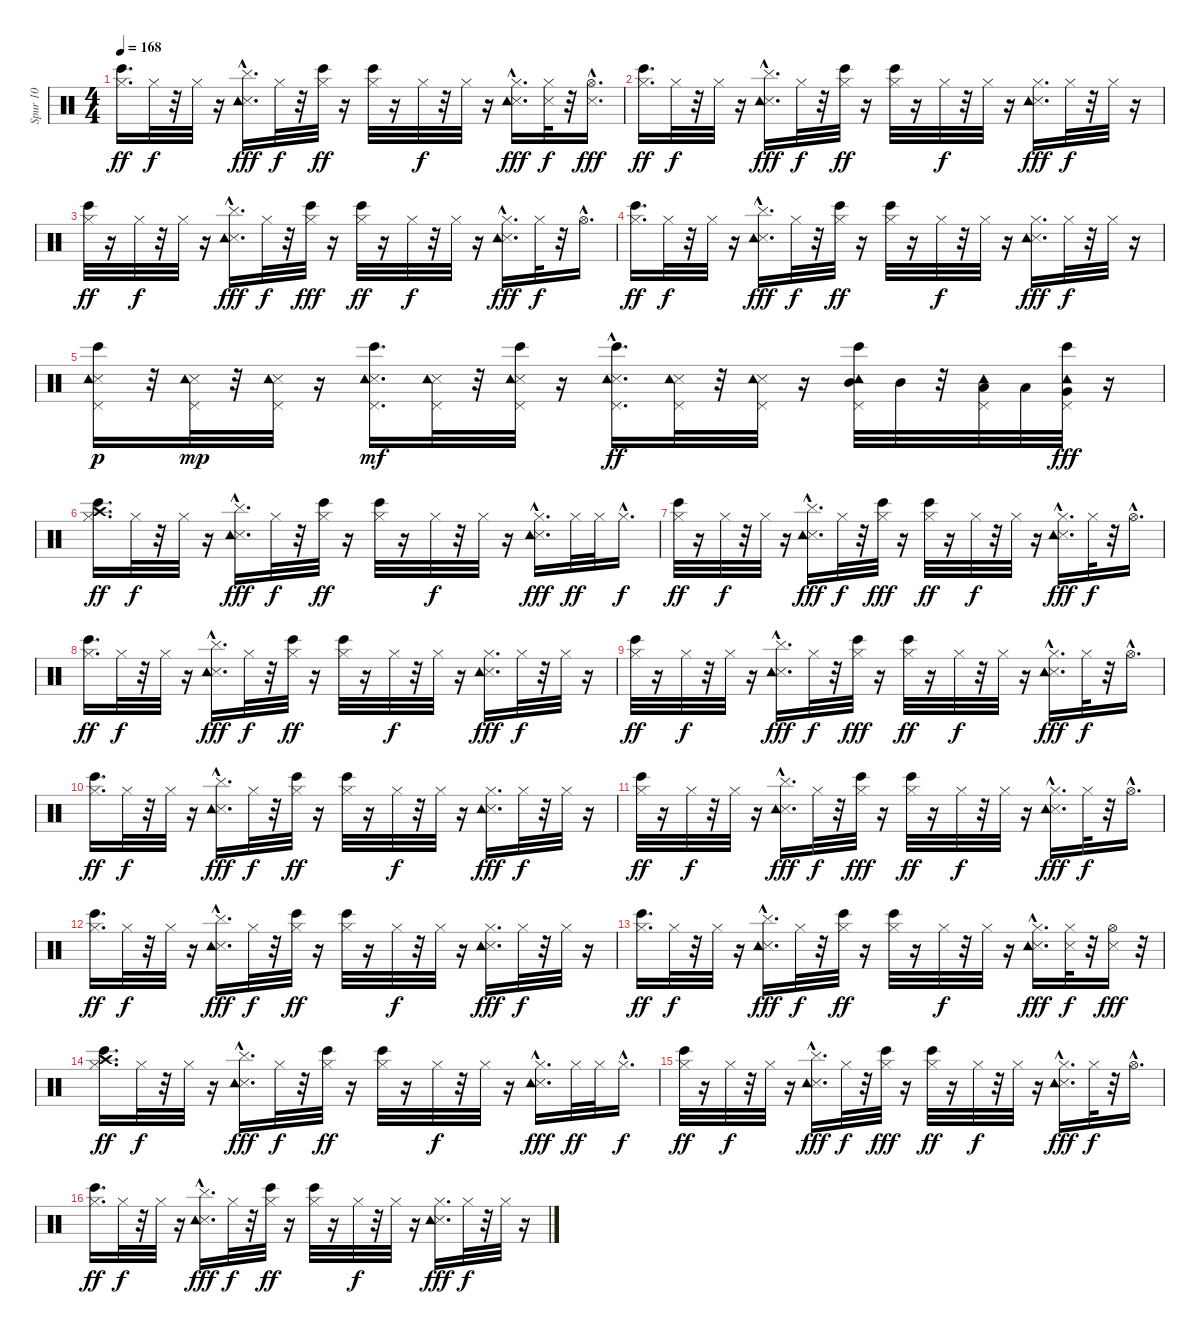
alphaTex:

\track ("Spur 10" "Spur 10") {instrument percussion}
\staff {score}
\articulation defaults
\ts (4 4)
\tempo 168
\clef neutral
\ks c
("Hi-Hat (closed)" "Bongo High (hit)").16{d dy ff} "Hi-Hat (closed)".32{dy f} r.32 "Hi-Hat (closed)".32 r.16 ("Cymbal (hit)"{hac} "Metronome (hit)" "Tambourine (hit)").16{d dy fff} "Hi-Hat (closed)".32{dy f} r.32 ("Hi-Hat (closed)" "Bongo High (hit)").32{dy ff} r.16 ("Hi-Hat (closed)" "Bongo High (hit)").32 r.16 "Hi-Hat (closed)".32{dy f} r.32 "Hi-Hat (closed)".32 r.16 ("Hi-Hat (closed)" "Metronome (hit)"{hac} "Tambourine (hit)").16{d dy fff} ("Metronome (hit)" "Hi-Hat (closed)").32{dy f} r.32 ("Metronome (hit)"{hac} "Hi-Hat (open)"{hac}).16{d dy fff} |
("Hi-Hat (closed)" "Bongo High (hit)").16{d dy ff} "Hi-Hat (closed)".32{dy f} r.32 "Hi-Hat (closed)".32 r.16 ("Cymbal (hit)"{hac} "Metronome (hit)" "Tambourine (hit)").16{d dy fff} "Hi-Hat (closed)".32{dy f} r.32 ("Hi-Hat (closed)" "Bongo High (hit)").32{dy ff} r.16 ("Hi-Hat (closed)" "Bongo High (hit)").32 r.16 "Hi-Hat (closed)".32{dy f} r.32 "Hi-Hat (closed)".32 r.16 ("Hi-Hat (closed)" "Metronome (hit)" "Tambourine (hit)").16{d dy fff} "Hi-Hat (closed)".32{dy f} r.32 "Hi-Hat (closed)".32 r.16 |
("Hi-Hat (closed)" "Bongo High (hit)").32{dy ff} r.16 "Hi-Hat (closed)".32{dy f} r.32 "Hi-Hat (closed)".32 r.16 ("Cymbal (hit)"{hac} "Metronome (hit)" "Tambourine (hit)").16{d dy fff} "Hi-Hat (closed)".32{dy f} r.32 ("Hi-Hat (closed)" "Bongo High (hit)").32{dy fff} r.16 ("Hi-Hat (closed)" "Bongo High (hit)").32{dy ff} r.16 "Hi-Hat (closed)".32{dy f} r.32 "Hi-Hat (closed)".32 r.16 ("Hi-Hat (closed)" "Metronome (hit)"{hac} "Tambourine (hit)").16{d dy fff} "Hi-Hat (closed)".32{dy f} r.32 "Hi-Hat (open)"{hac}.16{d} |
("Hi-Hat (closed)" "Bongo High (hit)").16{d dy ff} "Hi-Hat (closed)".32{dy f} r.32 "Hi-Hat (closed)".32 r.16 ("Cymbal (hit)"{hac} "Metronome (hit)" "Tambourine (hit)").16{d dy fff} "Hi-Hat (closed)".32{dy f} r.32 ("Hi-Hat (closed)" "Bongo High (hit)").32{dy ff} r.16 ("Hi-Hat (closed)" "Bongo High (hit)").32 r.16 "Hi-Hat (closed)".32{dy f} r.32 "Hi-Hat (closed)".32 r.16 ("Hi-Hat (closed)" "Metronome (hit)" "Tambourine (hit)").16{d dy fff} "Hi-Hat (closed)".32{dy f} r.32 "Hi-Hat (closed)".32 r.16 |
("Pedal Hi-Hat (hit)" "Metronome (hit)" "Bongo High (hit)" "Tambourine (hit)").16{dy p} r.32 ("Pedal Hi-Hat (hit)" "Metronome (hit)" "Tambourine (hit)").32{dy mp} r.32 ("Pedal Hi-Hat (hit)" "Metronome (hit)" "Tambourine (hit)").32 r.16 ("Pedal Hi-Hat (hit)" "Bongo High (hit)" "Metronome (hit)" "Tambourine (hit)").16{d dy mf} ("Pedal Hi-Hat (hit)" "Metronome (hit)" "Tambourine (hit)").32 r.32 ("Pedal Hi-Hat (hit)" "Bongo High (hit)" "Metronome (hit)" "Tambourine (hit)").32 r.16 ("Pedal Hi-Hat (hit)" "Bongo High (hit)"{hac} "Metronome (hit)" "Tambourine (hit)").16{d dy ff} ("Pedal Hi-Hat (hit)" "Metronome (hit)" "Tambourine (hit)").32 r.32 ("Pedal Hi-Hat (hit)" "Metronome (hit)" "Tambourine (hit)").32 r.16 ("Mid Tom (hit)" "Pedal Hi-Hat (hit)" "Bongo High (hit)" "Tambourine (hit)").32 "Mid Tom (hit)".32 r.32 ("Low Tom (hit)" "Pedal Hi-Hat (hit)" "Tambourine (hit)").32 "Low Tom (hit)".32 ("Very Low Tom (hit)" "Pedal Hi-Hat (hit)" "Bongo High (hit)" "Tambourine (hit)").32{dy fff} r.16 |
("Crash high (hit)" "Hi-Hat (closed)" "Bongo High (hit)").16{d dy ff} "Hi-Hat (closed)".32{dy f} r.32 "Hi-Hat (closed)".32 r.16 ("Cymbal (hit)"{hac} "Metronome (hit)" "Tambourine (hit)").16{d dy fff} "Hi-Hat (closed)".32{dy f} r.32 ("Hi-Hat (closed)" "Bongo High (hit)").32{dy ff} r.16 ("Hi-Hat (closed)" "Bongo High (hit)").32 r.16 "Hi-Hat (closed)".32{dy f} r.32 "Hi-Hat (closed)".32 r.16 ("Hi-Hat (closed)"{hac} "Metronome (hit)" "Tambourine (hit)").16{d dy fff} "Hi-Hat (closed)".32{dy ff} "Hi-Hat (closed)".32 "Hi-Hat (closed)"{hac}.16{d dy f} |
("Hi-Hat (closed)" "Bongo High (hit)").32{dy ff} r.16 "Hi-Hat (closed)".32{dy f} r.32 "Hi-Hat (closed)".32 r.16 ("Cymbal (hit)"{hac} "Metronome (hit)" "Tambourine (hit)").16{d dy fff} "Hi-Hat (closed)".32{dy f} r.32 ("Hi-Hat (closed)" "Bongo High (hit)").32{dy fff} r.16 ("Hi-Hat (closed)" "Bongo High (hit)").32{dy ff} r.16 "Hi-Hat (closed)".32{dy f} r.32 "Hi-Hat (closed)".32 r.16 ("Hi-Hat (closed)" "Metronome (hit)"{hac} "Tambourine (hit)").16{d dy fff} "Hi-Hat (closed)".32{dy f} r.32 "Hi-Hat (open)"{hac}.16{d} |
("Hi-Hat (closed)" "Bongo High (hit)").16{d dy ff} "Hi-Hat (closed)".32{dy f} r.32 "Hi-Hat (closed)".32 r.16 ("Cymbal (hit)"{hac} "Metronome (hit)" "Tambourine (hit)").16{d dy fff} "Hi-Hat (closed)".32{dy f} r.32 ("Hi-Hat (closed)" "Bongo High (hit)").32{dy ff} r.16 ("Hi-Hat (closed)" "Bongo High (hit)").32 r.16 "Hi-Hat (closed)".32{dy f} r.32 "Hi-Hat (closed)".32 r.16 ("Hi-Hat (closed)" "Metronome (hit)" "Tambourine (hit)").16{d dy fff} "Hi-Hat (closed)".32{dy f} r.32 "Hi-Hat (closed)".32 r.16 |
("Hi-Hat (closed)" "Bongo High (hit)").32{dy ff} r.16 "Hi-Hat (closed)".32{dy f} r.32 "Hi-Hat (closed)".32 r.16 ("Cymbal (hit)"{hac} "Metronome (hit)" "Tambourine (hit)").16{d dy fff} "Hi-Hat (closed)".32{dy f} r.32 ("Hi-Hat (closed)" "Bongo High (hit)").32{dy fff} r.16 ("Hi-Hat (closed)" "Bongo High (hit)").32{dy ff} r.16 "Hi-Hat (closed)".32{dy f} r.32 "Hi-Hat (closed)".32 r.16 ("Hi-Hat (closed)" "Metronome (hit)"{hac} "Tambourine (hit)").16{d dy fff} "Hi-Hat (closed)".32{dy f} r.32 "Hi-Hat (open)"{hac}.16{d} |
("Hi-Hat (closed)" "Bongo High (hit)").16{d dy ff} "Hi-Hat (closed)".32{dy f} r.32 "Hi-Hat (closed)".32 r.16 ("Cymbal (hit)"{hac} "Metronome (hit)" "Tambourine (hit)").16{d dy fff} "Hi-Hat (closed)".32{dy f} r.32 ("Hi-Hat (closed)" "Bongo High (hit)").32{dy ff} r.16 ("Hi-Hat (closed)" "Bongo High (hit)").32 r.16 "Hi-Hat (closed)".32{dy f} r.32 "Hi-Hat (closed)".32 r.16 ("Hi-Hat (closed)" "Metronome (hit)" "Tambourine (hit)").16{d dy fff} "Hi-Hat (closed)".32{dy f} r.32 "Hi-Hat (closed)".32 r.16 |
("Hi-Hat (closed)" "Bongo High (hit)").32{dy ff} r.16 "Hi-Hat (closed)".32{dy f} r.32 "Hi-Hat (closed)".32 r.16 ("Cymbal (hit)"{hac} "Metronome (hit)" "Tambourine (hit)").16{d dy fff} "Hi-Hat (closed)".32{dy f} r.32 ("Hi-Hat (closed)" "Bongo High (hit)").32{dy fff} r.16 ("Hi-Hat (closed)" "Bongo High (hit)").32{dy ff} r.16 "Hi-Hat (closed)".32{dy f} r.32 "Hi-Hat (closed)".32 r.16 ("Hi-Hat (closed)" "Metronome (hit)"{hac} "Tambourine (hit)").16{d dy fff} "Hi-Hat (closed)".32{dy f} r.32 "Hi-Hat (open)"{hac}.16{d} |
("Hi-Hat (closed)" "Bongo High (hit)").16{d dy ff} "Hi-Hat (closed)".32{dy f} r.32 "Hi-Hat (closed)".32 r.16 ("Cymbal (hit)"{hac} "Metronome (hit)" "Tambourine (hit)").16{d dy fff} "Hi-Hat (closed)".32{dy f} r.32 ("Hi-Hat (closed)" "Bongo High (hit)").32{dy ff} r.16 ("Hi-Hat (closed)" "Bongo High (hit)").32 r.16 "Hi-Hat (closed)".32{dy f} r.32 "Hi-Hat (closed)".32 r.16 ("Hi-Hat (closed)" "Metronome (hit)" "Tambourine (hit)").16{d dy fff} "Hi-Hat (closed)".32{dy f} r.32 "Hi-Hat (closed)".32 r.16 |
("Hi-Hat (closed)" "Bongo High (hit)").16{d dy ff} "Hi-Hat (closed)".32{dy f} r.32 "Hi-Hat (closed)".32 r.16 ("Cymbal (hit)"{hac} "Metronome (hit)" "Tambourine (hit)").16{d dy fff} "Hi-Hat (closed)".32{dy f} r.32 ("Hi-Hat (closed)" "Bongo High (hit)").32{dy ff} r.16 ("Hi-Hat (closed)" "Bongo High (hit)").32 r.16 "Hi-Hat (closed)".32{dy f} r.32 "Hi-Hat (closed)".32 r.16 ("Hi-Hat (closed)" "Metronome (hit)"{hac} "Tambourine (hit)").16{d dy fff} ("Metronome (hit)" "Hi-Hat (closed)").32{dy f} r.32 ("Metronome (hit)" "Hi-Hat (open)").16{dy fff} r.32 |
("Crash high (hit)" "Hi-Hat (closed)" "Bongo High (hit)").16{d dy ff} "Hi-Hat (closed)".32{dy f} r.32 "Hi-Hat (closed)".32 r.16 ("Cymbal (hit)"{hac} "Metronome (hit)" "Tambourine (hit)").16{d dy fff} "Hi-Hat (closed)".32{dy f} r.32 ("Hi-Hat (closed)" "Bongo High (hit)").32{dy ff} r.16 ("Hi-Hat (closed)" "Bongo High (hit)").32 r.16 "Hi-Hat (closed)".32{dy f} r.32 "Hi-Hat (closed)".32 r.16 ("Hi-Hat (closed)"{hac} "Metronome (hit)" "Tambourine (hit)").16{d dy fff} "Hi-Hat (closed)".32{dy ff} "Hi-Hat (closed)".32 "Hi-Hat (closed)"{hac}.16{d dy f} |
("Hi-Hat (closed)" "Bongo High (hit)").32{dy ff} r.16 "Hi-Hat (closed)".32{dy f} r.32 "Hi-Hat (closed)".32 r.16 ("Cymbal (hit)"{hac} "Metronome (hit)" "Tambourine (hit)").16{d dy fff} "Hi-Hat (closed)".32{dy f} r.32 ("Hi-Hat (closed)" "Bongo High (hit)").32{dy fff} r.16 ("Hi-Hat (closed)" "Bongo High (hit)").32{dy ff} r.16 "Hi-Hat (closed)".32{dy f} r.32 "Hi-Hat (closed)".32 r.16 ("Hi-Hat (closed)" "Metronome (hit)"{hac} "Tambourine (hit)").16{d dy fff} "Hi-Hat (closed)".32{dy f} r.32 "Hi-Hat (open)"{hac}.16{d} |
("Hi-Hat (closed)" "Bongo High (hit)").16{d dy ff} "Hi-Hat (closed)".32{dy f} r.32 "Hi-Hat (closed)".32 r.16 ("Cymbal (hit)"{hac} "Metronome (hit)" "Tambourine (hit)").16{d dy fff} "Hi-Hat (closed)".32{dy f} r.32 ("Hi-Hat (closed)" "Bongo High (hit)").32{dy ff} r.16 ("Hi-Hat (closed)" "Bongo High (hit)").32 r.16 "Hi-Hat (closed)".32{dy f} r.32 "Hi-Hat (closed)".32 r.16 ("Hi-Hat (closed)" "Metronome (hit)" "Tambourine (hit)").16{d dy fff} "Hi-Hat (closed)".32{dy f} r.32 "Hi-Hat (closed)".32 r.16
